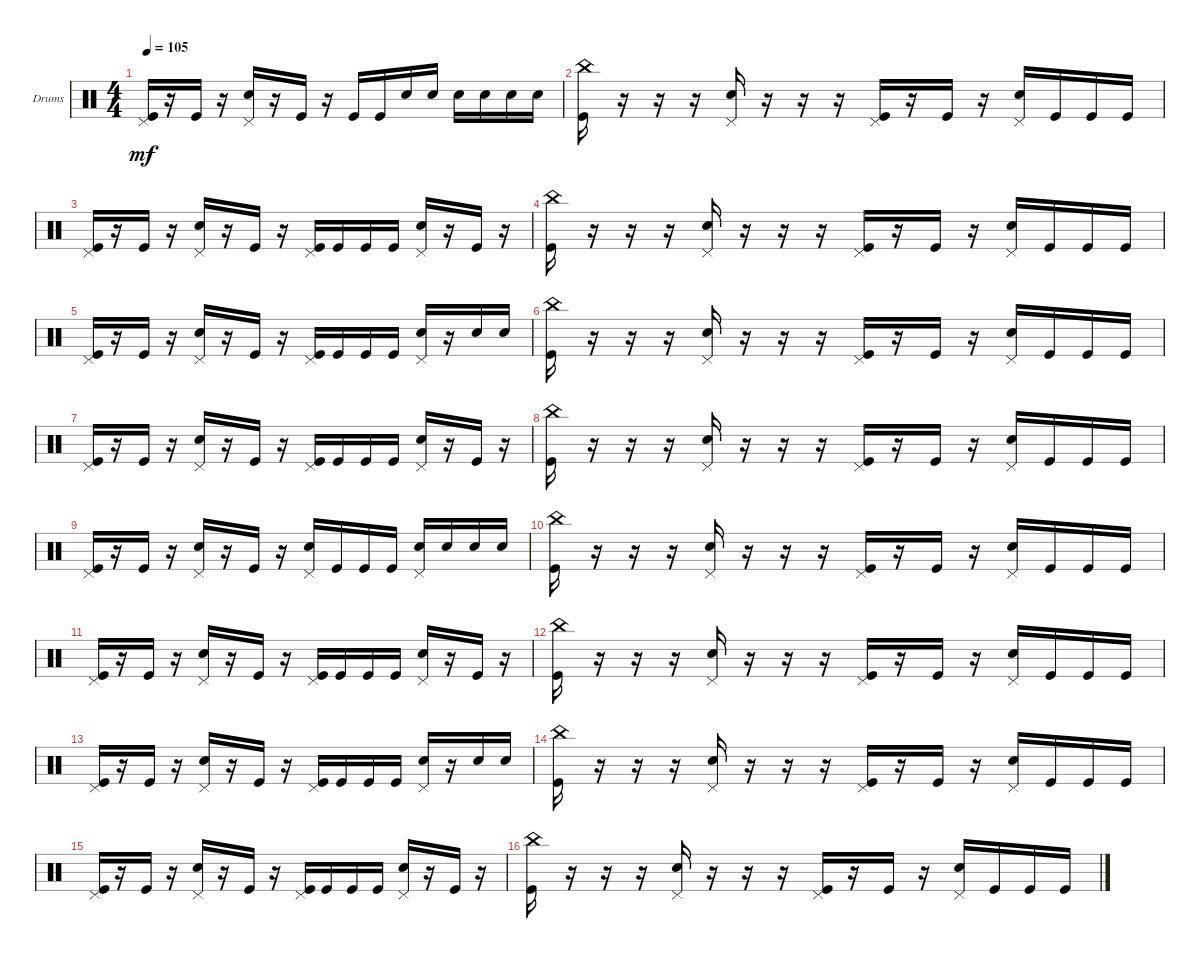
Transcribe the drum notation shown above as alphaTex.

\defaultSystemsLayout 4
\bracketExtendMode groupsimilarinstruments
\firstSystemTrackNameOrientation horizontal
\otherSystemsTrackNameOrientation horizontal
\track ("Drumkit" "Drums") {instrument percussion}
\staff {score}
\articulation defaults
\ts (4 4)
\tempo 105
\clef neutral
\ks c
("Kick (hit)" "Pedal Hi-Hat (hit)").16{dy mf} r.16 "Kick (hit)".16 r.16 ("Pedal Hi-Hat (hit)" "Snare (hit) 2").16 r.16 "Kick (hit)".16 r.16 "Kick (hit)".16 "Kick (hit)".16 "Snare (hit) 2".16 "Snare (hit) 2".16 "Snare (hit) 2".16 "Snare (hit) 2".16 "Snare (hit) 2".16 "Snare (hit) 2".16 |
("Kick (hit)" "China (hit)").16 r.16 r.16 r.16 ("Snare (hit) 2" "Pedal Hi-Hat (hit)").16 r.16 r.16 r.16 ("Kick (hit)" "Pedal Hi-Hat (hit)").16 r.16 "Kick (hit)".16 r.16 ("Snare (hit) 2" "Pedal Hi-Hat (hit)").16 "Kick (hit)".16 "Kick (hit)".16 "Kick (hit)".16 |
("Kick (hit)" "Pedal Hi-Hat (hit)").16 r.16 "Kick (hit)".16 r.16 ("Snare (hit) 2" "Pedal Hi-Hat (hit)").16 r.16 "Kick (hit)".16 r.16 ("Kick (hit)" "Pedal Hi-Hat (hit)").16 "Kick (hit)".16 "Kick (hit)".16 "Kick (hit)".16 ("Snare (hit) 2" "Pedal Hi-Hat (hit)").16 r.16 "Kick (hit)".16 r.16 |
("Kick (hit)" "China (hit)").16 r.16 r.16 r.16 ("Snare (hit) 2" "Pedal Hi-Hat (hit)").16 r.16 r.16 r.16 ("Kick (hit)" "Pedal Hi-Hat (hit)").16 r.16 "Kick (hit)".16 r.16 ("Snare (hit) 2" "Pedal Hi-Hat (hit)").16 "Kick (hit)".16 "Kick (hit)".16 "Kick (hit)".16 |
("Kick (hit)" "Pedal Hi-Hat (hit)").16 r.16 "Kick (hit)".16 r.16 ("Snare (hit) 2" "Pedal Hi-Hat (hit)").16 r.16 "Kick (hit)".16 r.16 ("Kick (hit)" "Pedal Hi-Hat (hit)").16 "Kick (hit)".16 "Kick (hit)".16 "Kick (hit)".16 ("Snare (hit) 2" "Pedal Hi-Hat (hit)").16 r.16 "Snare (hit) 2".16 "Snare (hit) 2".16 |
("Kick (hit)" "China (hit)").16 r.16 r.16 r.16 ("Snare (hit) 2" "Pedal Hi-Hat (hit)").16 r.16 r.16 r.16 ("Kick (hit)" "Pedal Hi-Hat (hit)").16 r.16 "Kick (hit)".16 r.16 ("Snare (hit) 2" "Pedal Hi-Hat (hit)").16 "Kick (hit)".16 "Kick (hit)".16 "Kick (hit)".16 |
("Kick (hit)" "Pedal Hi-Hat (hit)").16 r.16 "Kick (hit)".16 r.16 ("Snare (hit) 2" "Pedal Hi-Hat (hit)").16 r.16 "Kick (hit)".16 r.16 ("Kick (hit)" "Pedal Hi-Hat (hit)").16 "Kick (hit)".16 "Kick (hit)".16 "Kick (hit)".16 ("Snare (hit) 2" "Pedal Hi-Hat (hit)").16 r.16 "Kick (hit)".16 r.16 |
("Kick (hit)" "China (hit)").16 r.16 r.16 r.16 ("Snare (hit) 2" "Pedal Hi-Hat (hit)").16 r.16 r.16 r.16 ("Kick (hit)" "Pedal Hi-Hat (hit)").16 r.16 "Kick (hit)".16 r.16 ("Snare (hit) 2" "Pedal Hi-Hat (hit)").16 "Kick (hit)".16 "Kick (hit)".16 "Kick (hit)".16 |
("Kick (hit)" "Pedal Hi-Hat (hit)").16 r.16 "Kick (hit)".16 r.16 ("Snare (hit) 2" "Pedal Hi-Hat (hit)").16 r.16 "Kick (hit)".16 r.16 ("Pedal Hi-Hat (hit)" "Snare (hit) 2").16 "Kick (hit)".16 "Kick (hit)".16 "Kick (hit)".16 ("Snare (hit) 2" "Pedal Hi-Hat (hit)").16 "Snare (hit) 2".16 "Snare (hit) 2".16 "Snare (hit) 2".16 |
("Kick (hit)" "China (hit)").16 r.16 r.16 r.16 ("Snare (hit) 2" "Pedal Hi-Hat (hit)").16 r.16 r.16 r.16 ("Kick (hit)" "Pedal Hi-Hat (hit)").16 r.16 "Kick (hit)".16 r.16 ("Snare (hit) 2" "Pedal Hi-Hat (hit)").16 "Kick (hit)".16 "Kick (hit)".16 "Kick (hit)".16 |
("Kick (hit)" "Pedal Hi-Hat (hit)").16 r.16 "Kick (hit)".16 r.16 ("Snare (hit) 2" "Pedal Hi-Hat (hit)").16 r.16 "Kick (hit)".16 r.16 ("Kick (hit)" "Pedal Hi-Hat (hit)").16 "Kick (hit)".16 "Kick (hit)".16 "Kick (hit)".16 ("Snare (hit) 2" "Pedal Hi-Hat (hit)").16 r.16 "Kick (hit)".16 r.16 |
("Kick (hit)" "China (hit)").16 r.16 r.16 r.16 ("Snare (hit) 2" "Pedal Hi-Hat (hit)").16 r.16 r.16 r.16 ("Kick (hit)" "Pedal Hi-Hat (hit)").16 r.16 "Kick (hit)".16 r.16 ("Snare (hit) 2" "Pedal Hi-Hat (hit)").16 "Kick (hit)".16 "Kick (hit)".16 "Kick (hit)".16 |
("Kick (hit)" "Pedal Hi-Hat (hit)").16 r.16 "Kick (hit)".16 r.16 ("Snare (hit) 2" "Pedal Hi-Hat (hit)").16 r.16 "Kick (hit)".16 r.16 ("Kick (hit)" "Pedal Hi-Hat (hit)").16 "Kick (hit)".16 "Kick (hit)".16 "Kick (hit)".16 ("Snare (hit) 2" "Pedal Hi-Hat (hit)").16 r.16 "Snare (hit) 2".16 "Snare (hit) 2".16 |
("Kick (hit)" "China (hit)").16 r.16 r.16 r.16 ("Snare (hit) 2" "Pedal Hi-Hat (hit)").16 r.16 r.16 r.16 ("Kick (hit)" "Pedal Hi-Hat (hit)").16 r.16 "Kick (hit)".16 r.16 ("Snare (hit) 2" "Pedal Hi-Hat (hit)").16 "Kick (hit)".16 "Kick (hit)".16 "Kick (hit)".16 |
("Kick (hit)" "Pedal Hi-Hat (hit)").16 r.16 "Kick (hit)".16 r.16 ("Snare (hit) 2" "Pedal Hi-Hat (hit)").16 r.16 "Kick (hit)".16 r.16 ("Kick (hit)" "Pedal Hi-Hat (hit)").16 "Kick (hit)".16 "Kick (hit)".16 "Kick (hit)".16 ("Snare (hit) 2" "Pedal Hi-Hat (hit)").16 r.16 "Kick (hit)".16 r.16 |
("Kick (hit)" "China (hit)").16 r.16 r.16 r.16 ("Snare (hit) 2" "Pedal Hi-Hat (hit)").16 r.16 r.16 r.16 ("Kick (hit)" "Pedal Hi-Hat (hit)").16 r.16 "Kick (hit)".16 r.16 ("Snare (hit) 2" "Pedal Hi-Hat (hit)").16 "Kick (hit)".16 "Kick (hit)".16 "Kick (hit)".16
